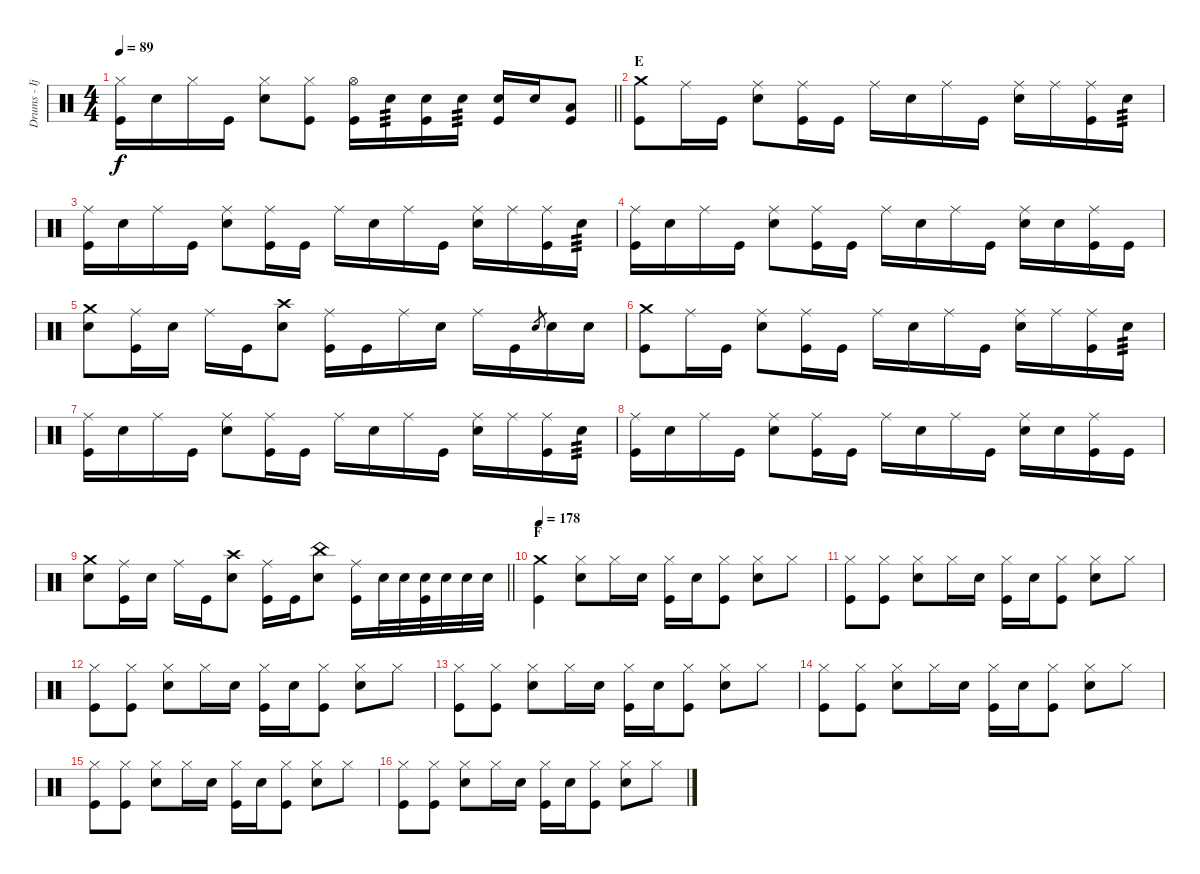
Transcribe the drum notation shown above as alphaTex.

\track ("Drums - Ijichi" "Drums - Ij") {instrument percussion}
\staff {score}
\articulation defaults
\ts (4 4)
\tempo 89
\clef neutral
\barLineRight lightlight
\ks c
("Hi-Hat (closed)" "Kick (hit)").16{dy f} "Electric Snare (hit)".16 "Hi-Hat (closed)".16 "Kick (hit)".16 ("Hi-Hat (closed)" "Electric Snare (hit)").8 ("Hi-Hat (closed)" "Kick (hit)").8 ("Hi-Hat (open)" "Kick (hit)").16 "Electric Snare (hit)".16{tp 3} ("Electric Snare (hit)" "Kick (hit)").16 "Electric Snare (hit)".16{tp 3} ("Electric Snare (hit)" "Kick (hit)").16 "Electric Snare (hit)".16 ("Low Tom (hit)" "Kick (hit)").8 |
\section ("" "E")
("Crash medium (hit)" "Kick (hit)").8 "Ride (middle)".16 "Kick (hit)".16 ("Ride (middle)" "Electric Snare (hit)").8 ("Ride (middle)" "Kick (hit)").16 "Kick (hit)".16 "Ride (middle)".16 "Electric Snare (hit)".16 "Ride (middle)".16 "Kick (hit)".16 ("Ride (middle)" "Electric Snare (hit)").16 "Ride (middle)".16 ("Ride (middle)" "Kick (hit)").16 "Electric Snare (hit)".16{tp 3} |
("Ride (middle)" "Kick (hit)").16 "Electric Snare (hit)".16 "Ride (middle)".16 "Kick (hit)".16 ("Ride (middle)" "Electric Snare (hit)").8 ("Ride (middle)" "Kick (hit)").16 "Kick (hit)".16 "Ride (middle)".16 "Electric Snare (hit)".16 "Ride (middle)".16 "Kick (hit)".16 ("Ride (middle)" "Electric Snare (hit)").16 "Ride (middle)".16 ("Ride (middle)" "Kick (hit)").16 "Electric Snare (hit)".16{tp 3} |
("Ride (middle)" "Kick (hit)").16 "Electric Snare (hit)".16 "Ride (middle)".16 "Kick (hit)".16 ("Ride (middle)" "Electric Snare (hit)").8 ("Ride (middle)" "Kick (hit)").16 "Kick (hit)".16 "Ride (middle)".16 "Electric Snare (hit)".16 "Ride (middle)".16 "Kick (hit)".16 ("Ride (middle)" "Electric Snare (hit)").16 "Electric Snare (hit)".16 ("Ride (middle)" "Kick (hit)").16 "Kick (hit)".16 |
("Crash medium (hit)" "Electric Snare (hit)").8 ("Ride (middle)" "Kick (hit)").16 "Electric Snare (hit)".16 "Ride (middle)".16 "Kick (hit)".16 ("Crash high (hit)" "Electric Snare (hit)").8 ("Ride (middle)" "Kick (hit)").16 "Kick (hit)".16 "Ride (middle)".16 "Electric Snare (hit)".16 "Ride (middle)".16 "Kick (hit)".16 "Electric Snare (hit)".8{gr} "Electric Snare (hit)".16 "Electric Snare (hit)".16 |
("Crash medium (hit)" "Kick (hit)").8 "Ride (middle)".16 "Kick (hit)".16 ("Ride (middle)" "Electric Snare (hit)").8 ("Ride (middle)" "Kick (hit)").16 "Kick (hit)".16 "Ride (middle)".16 "Electric Snare (hit)".16 "Ride (middle)".16 "Kick (hit)".16 ("Ride (middle)" "Electric Snare (hit)").16 "Ride (middle)".16 ("Ride (middle)" "Kick (hit)").16 "Electric Snare (hit)".16{tp 3} |
("Ride (middle)" "Kick (hit)").16 "Electric Snare (hit)".16 "Ride (middle)".16 "Kick (hit)".16 ("Ride (middle)" "Electric Snare (hit)").8 ("Ride (middle)" "Kick (hit)").16 "Kick (hit)".16 "Ride (middle)".16 "Electric Snare (hit)".16 "Ride (middle)".16 "Kick (hit)".16 ("Ride (middle)" "Electric Snare (hit)").16 "Ride (middle)".16 ("Ride (middle)" "Kick (hit)").16 "Electric Snare (hit)".16{tp 3} |
("Ride (middle)" "Kick (hit)").16 "Electric Snare (hit)".16 "Ride (middle)".16 "Kick (hit)".16 ("Ride (middle)" "Electric Snare (hit)").8 ("Ride (middle)" "Kick (hit)").16 "Kick (hit)".16 "Ride (middle)".16 "Electric Snare (hit)".16 "Ride (middle)".16 "Kick (hit)".16 ("Ride (middle)" "Electric Snare (hit)").16 "Electric Snare (hit)".16 ("Ride (middle)" "Kick (hit)").16 "Kick (hit)".16 |
\barLineRight lightlight
("Crash medium (hit)" "Electric Snare (hit)").8 ("Ride (middle)" "Kick (hit)").16 "Electric Snare (hit)".16 "Ride (middle)".16 "Kick (hit)".16 ("Crash high (hit)" "Electric Snare (hit)").8 ("Ride (middle)" "Kick (hit)").16 "Kick (hit)".16 ("China (hit)" "Electric Snare (hit)").8 ("Ride (middle)" "Kick (hit)").16 "Electric Snare (hit)".32 "Electric Snare (hit)".32 ("Electric Snare (hit)" "Kick (hit)").32 "Electric Snare (hit)".32 "Electric Snare (hit)".32 "Electric Snare (hit)".32 |
\section ("" "F")
\tempo 178
("Crash medium (hit)" "Kick (hit)").4 ("Hi-Hat (closed)" "Electric Snare (hit)").8 "Hi-Hat (closed)".16 "Electric Snare (hit)".16 ("Hi-Hat (closed)" "Kick (hit)").16 "Electric Snare (hit)".16 ("Hi-Hat (closed)" "Kick (hit)").8 ("Hi-Hat (closed)" "Electric Snare (hit)").8 "Hi-Hat (closed)".8 |
("Hi-Hat (closed)" "Kick (hit)").8 ("Hi-Hat (closed)" "Kick (hit)").8 ("Hi-Hat (closed)" "Electric Snare (hit)").8 "Hi-Hat (closed)".16 "Electric Snare (hit)".16 ("Hi-Hat (closed)" "Kick (hit)").16 "Electric Snare (hit)".16 ("Hi-Hat (closed)" "Kick (hit)").8 ("Hi-Hat (closed)" "Electric Snare (hit)").8 "Hi-Hat (closed)".8 |
("Hi-Hat (closed)" "Kick (hit)").8 ("Hi-Hat (closed)" "Kick (hit)").8 ("Hi-Hat (closed)" "Electric Snare (hit)").8 "Hi-Hat (closed)".16 "Electric Snare (hit)".16 ("Hi-Hat (closed)" "Kick (hit)").16 "Electric Snare (hit)".16 ("Hi-Hat (closed)" "Kick (hit)").8 ("Hi-Hat (closed)" "Electric Snare (hit)").8 "Hi-Hat (closed)".8 |
("Hi-Hat (closed)" "Kick (hit)").8 ("Hi-Hat (closed)" "Kick (hit)").8 ("Hi-Hat (closed)" "Electric Snare (hit)").8 "Hi-Hat (closed)".16 "Electric Snare (hit)".16 ("Hi-Hat (closed)" "Kick (hit)").16 "Electric Snare (hit)".16 ("Hi-Hat (closed)" "Kick (hit)").8 ("Hi-Hat (closed)" "Electric Snare (hit)").8 "Hi-Hat (closed)".8 |
("Hi-Hat (closed)" "Kick (hit)").8 ("Hi-Hat (closed)" "Kick (hit)").8 ("Hi-Hat (closed)" "Electric Snare (hit)").8 "Hi-Hat (closed)".16 "Electric Snare (hit)".16 ("Hi-Hat (closed)" "Kick (hit)").16 "Electric Snare (hit)".16 ("Hi-Hat (closed)" "Kick (hit)").8 ("Hi-Hat (closed)" "Electric Snare (hit)").8 "Hi-Hat (closed)".8 |
("Hi-Hat (closed)" "Kick (hit)").8 ("Hi-Hat (closed)" "Kick (hit)").8 ("Hi-Hat (closed)" "Electric Snare (hit)").8 "Hi-Hat (closed)".16 "Electric Snare (hit)".16 ("Hi-Hat (closed)" "Kick (hit)").16 "Electric Snare (hit)".16 ("Hi-Hat (closed)" "Kick (hit)").8 ("Hi-Hat (closed)" "Electric Snare (hit)").8 "Hi-Hat (closed)".8 |
("Hi-Hat (closed)" "Kick (hit)").8 ("Hi-Hat (closed)" "Kick (hit)").8 ("Hi-Hat (closed)" "Electric Snare (hit)").8 "Hi-Hat (closed)".16 "Electric Snare (hit)".16 ("Hi-Hat (closed)" "Kick (hit)").16 "Electric Snare (hit)".16 ("Hi-Hat (closed)" "Kick (hit)").8 ("Hi-Hat (closed)" "Electric Snare (hit)").8 "Hi-Hat (closed)".8
